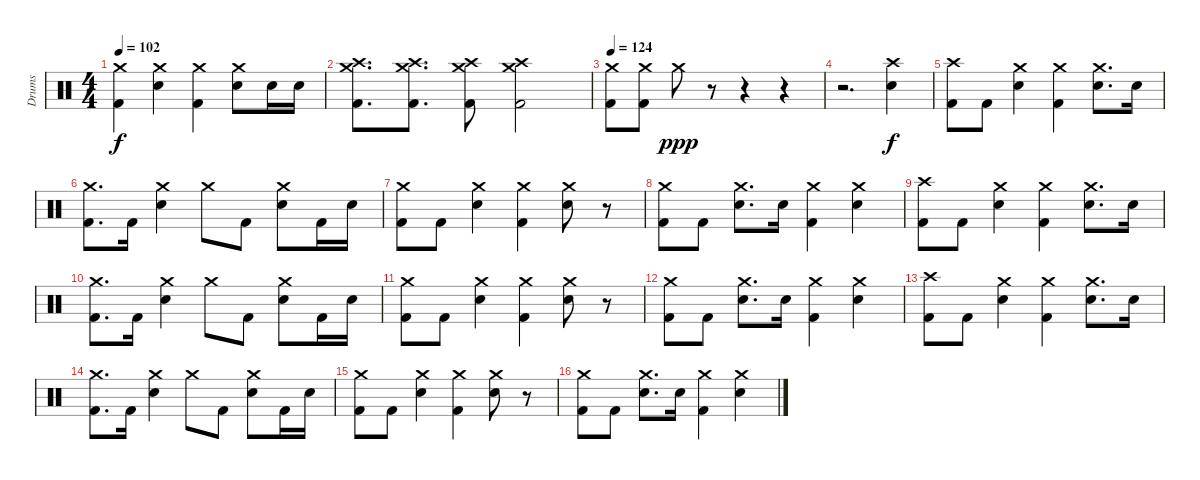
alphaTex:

\track ("Drums" "Drums") {instrument percussion}
\staff
\articulation defaults
\ts (4 4)
\tempo 102
\clef neutral
\ks c
("Crash medium (hit)" "Kick (hit) 2").4{dy f} ("Crash medium (hit)" "Electric Snare (hit)").4 ("Crash medium (hit)" "Kick (hit) 2").4 ("Crash medium (hit)" "Electric Snare (hit)").8 "Electric Snare (hit)".16 "Electric Snare (hit)".16 |
("Crash medium (hit)" "Crash high (hit)" "Kick (hit) 2").8{d} ("Crash medium (hit)" "Crash high (hit)" "Kick (hit) 2").8{d} ("Crash medium (hit)" "Crash high (hit)" "Kick (hit) 2").8 ("Crash medium (hit)" "Crash high (hit)" "Kick (hit) 2").2 |
\tempo 124
("Crash medium (hit)" "Kick (hit) 2").8 ("Crash medium (hit)" "Kick (hit) 2").8 "Crash medium (hit)".8{dy ppp} r.8 r.4 r.4 |
r.2{d} ("Crash high (hit)" "Electric Snare (hit)").4{dy f} |
("Crash high (hit)" "Kick (hit) 2").8 "Kick (hit) 2".8 ("Crash medium (hit)" "Electric Snare (hit)").4 ("Crash medium (hit)" "Kick (hit) 2").4 ("Crash medium (hit)" "Electric Snare (hit)").8{d} "Electric Snare (hit)".16 |
("Crash medium (hit)" "Kick (hit) 2").8{d} "Kick (hit) 2".16 ("Crash medium (hit)" "Electric Snare (hit)").4 "Crash medium (hit)".8 "Kick (hit) 2".8 ("Crash medium (hit)" "Electric Snare (hit)").8 "Kick (hit) 2".16 "Electric Snare (hit)".16 |
("Crash medium (hit)" "Kick (hit) 2").8 "Kick (hit) 2".8 ("Crash medium (hit)" "Electric Snare (hit)").4 ("Crash medium (hit)" "Kick (hit) 2").4 ("Crash medium (hit)" "Electric Snare (hit)").8 r.8 |
("Crash medium (hit)" "Kick (hit) 2").8 "Kick (hit) 2".8 ("Crash medium (hit)" "Electric Snare (hit)").8{d} "Electric Snare (hit)".16 ("Crash medium (hit)" "Kick (hit) 2").4 ("Crash medium (hit)" "Electric Snare (hit)").4 |
("Crash high (hit)" "Kick (hit) 2").8 "Kick (hit) 2".8 ("Crash medium (hit)" "Electric Snare (hit)").4 ("Crash medium (hit)" "Kick (hit) 2").4 ("Crash medium (hit)" "Electric Snare (hit)").8{d} "Electric Snare (hit)".16 |
("Crash medium (hit)" "Kick (hit) 2").8{d} "Kick (hit) 2".16 ("Crash medium (hit)" "Electric Snare (hit)").4 "Crash medium (hit)".8 "Kick (hit) 2".8 ("Crash medium (hit)" "Electric Snare (hit)").8 "Kick (hit) 2".16 "Electric Snare (hit)".16 |
("Crash medium (hit)" "Kick (hit) 2").8 "Kick (hit) 2".8 ("Crash medium (hit)" "Electric Snare (hit)").4 ("Crash medium (hit)" "Kick (hit) 2").4 ("Crash medium (hit)" "Electric Snare (hit)").8 r.8 |
("Crash medium (hit)" "Kick (hit) 2").8 "Kick (hit) 2".8 ("Crash medium (hit)" "Electric Snare (hit)").8{d} "Electric Snare (hit)".16 ("Crash medium (hit)" "Kick (hit) 2").4 ("Crash medium (hit)" "Electric Snare (hit)").4 |
("Crash high (hit)" "Kick (hit) 2").8 "Kick (hit) 2".8 ("Crash medium (hit)" "Electric Snare (hit)").4 ("Crash medium (hit)" "Kick (hit) 2").4 ("Crash medium (hit)" "Electric Snare (hit)").8{d} "Electric Snare (hit)".16 |
("Crash medium (hit)" "Kick (hit) 2").8{d} "Kick (hit) 2".16 ("Crash medium (hit)" "Electric Snare (hit)").4 "Crash medium (hit)".8 "Kick (hit) 2".8 ("Crash medium (hit)" "Electric Snare (hit)").8 "Kick (hit) 2".16 "Electric Snare (hit)".16 |
("Crash medium (hit)" "Kick (hit) 2").8 "Kick (hit) 2".8 ("Crash medium (hit)" "Electric Snare (hit)").4 ("Crash medium (hit)" "Kick (hit) 2").4 ("Crash medium (hit)" "Electric Snare (hit)").8 r.8 |
("Crash medium (hit)" "Kick (hit) 2").8 "Kick (hit) 2".8 ("Crash medium (hit)" "Electric Snare (hit)").8{d} "Electric Snare (hit)".16 ("Crash medium (hit)" "Kick (hit) 2").4 ("Crash medium (hit)" "Electric Snare (hit)").4
